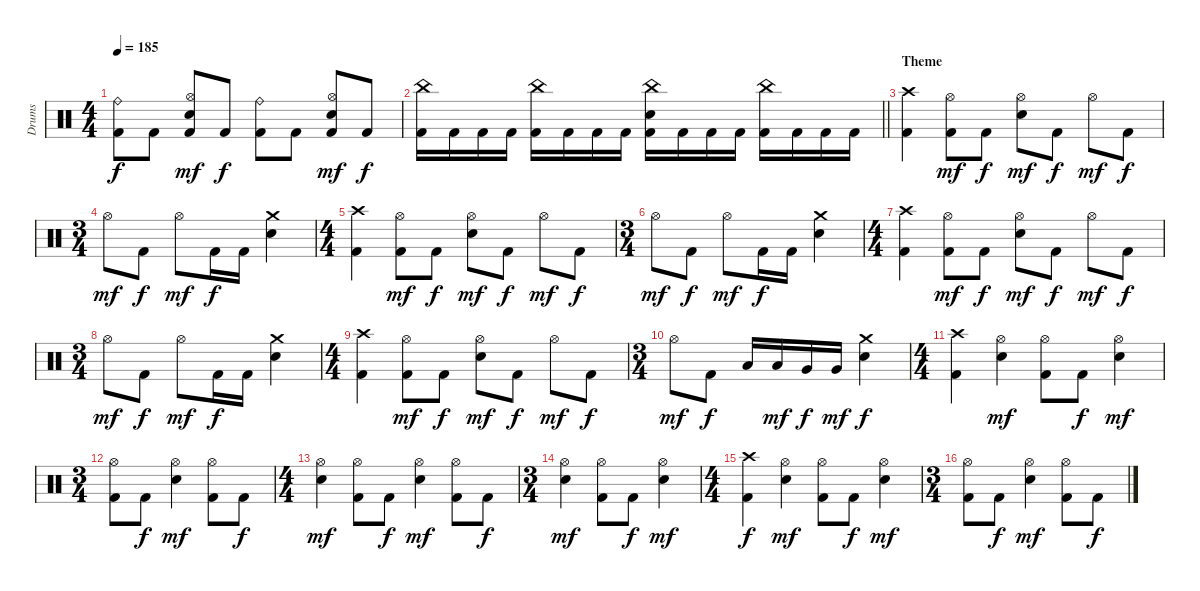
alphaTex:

\track ("Drums" "Drums") {instrument percussion}
\staff {score}
\articulation defaults
\ts (4 4)
\tempo 185
\clef neutral
\ks c
("Kick (hit) 2" "Ride (bell)").8{dy f} "Kick (hit) 2".8 ("Kick (hit) 2" "Hi-Hat (open)" "Electric Snare (hit)").8{dy mf} "Kick (hit) 2".8{dy f} ("Kick (hit) 2" "Ride (bell)").8 "Kick (hit) 2".8 ("Kick (hit) 2" "Hi-Hat (open)" "Electric Snare (hit)").8{dy mf} "Kick (hit) 2".8{dy f} |
\barLineRight lightlight
("Kick (hit) 2" "China (hit)").16 "Kick (hit) 2".16 "Kick (hit) 2".16 "Kick (hit) 2".16 ("Kick (hit) 2" "China (hit)").16 "Kick (hit) 2".16 "Kick (hit) 2".16 "Kick (hit) 2".16 ("Kick (hit) 2" "China (hit)" "Electric Snare (hit)").16 "Kick (hit) 2".16 "Kick (hit) 2".16 "Kick (hit) 2".16 ("Kick (hit) 2" "China (hit)").16 "Kick (hit) 2".16 "Kick (hit) 2".16 "Kick (hit) 2".16 |
\section ("" "Theme")
("Kick (hit) 2" "Crash high (hit)").4 ("Kick (hit) 2" "Hi-Hat (open)").8{dy mf} "Kick (hit) 2".8{dy f} ("Hi-Hat (open)" "Electric Snare (hit)").8{dy mf} "Kick (hit) 2".8{dy f} "Hi-Hat (open)".8{dy mf} "Kick (hit) 2".8{dy f} |
\ts (3 4)
"Hi-Hat (open)".8{dy mf} "Kick (hit) 2".8{dy f} "Hi-Hat (open)".8{dy mf} "Kick (hit) 2".16{dy f} "Kick (hit) 2".16 ("Crash medium (hit)" "Electric Snare (hit)").4 |
\ts (4 4)
("Kick (hit) 2" "Crash high (hit)").4 ("Kick (hit) 2" "Hi-Hat (open)").8{dy mf} "Kick (hit) 2".8{dy f} ("Hi-Hat (open)" "Electric Snare (hit)").8{dy mf} "Kick (hit) 2".8{dy f} "Hi-Hat (open)".8{dy mf} "Kick (hit) 2".8{dy f} |
\ts (3 4)
"Hi-Hat (open)".8{dy mf} "Kick (hit) 2".8{dy f} "Hi-Hat (open)".8{dy mf} "Kick (hit) 2".16{dy f} "Kick (hit) 2".16 ("Crash medium (hit)" "Electric Snare (hit)").4 |
\ts (4 4)
("Kick (hit) 2" "Crash high (hit)").4 ("Kick (hit) 2" "Hi-Hat (open)").8{dy mf} "Kick (hit) 2".8{dy f} ("Hi-Hat (open)" "Electric Snare (hit)").8{dy mf} "Kick (hit) 2".8{dy f} "Hi-Hat (open)".8{dy mf} "Kick (hit) 2".8{dy f} |
\ts (3 4)
"Hi-Hat (open)".8{dy mf} "Kick (hit) 2".8{dy f} "Hi-Hat (open)".8{dy mf} "Kick (hit) 2".16{dy f} "Kick (hit) 2".16 ("Crash medium (hit)" "Electric Snare (hit)").4 |
\ts (4 4)
("Kick (hit) 2" "Crash high (hit)").4 ("Kick (hit) 2" "Hi-Hat (open)").8{dy mf} "Kick (hit) 2".8{dy f} ("Hi-Hat (open)" "Electric Snare (hit)").8{dy mf} "Kick (hit) 2".8{dy f} "Hi-Hat (open)".8{dy mf} "Kick (hit) 2".8{dy f} |
\ts (3 4)
"Hi-Hat (open)".8{dy mf} "Kick (hit) 2".8{dy f} "Low Tom (hit)".16 "Low Tom (hit)".16{dy mf} "Very Low Tom (hit)".16{dy f} "Very Low Tom (hit)".16{dy mf} ("Crash medium (hit)" "Electric Snare (hit)").4{dy f} |
\ts (4 4)
("Kick (hit) 2" "Crash high (hit)").4 ("Hi-Hat (open)" "Electric Snare (hit)").4{dy mf} ("Kick (hit) 2" "Hi-Hat (open)").8 "Kick (hit) 2".8{dy f} ("Hi-Hat (open)" "Electric Snare (hit)").4{dy mf} |
\ts (3 4)
("Kick (hit) 2" "Hi-Hat (open)").8 "Kick (hit) 2".8{dy f} ("Hi-Hat (open)" "Electric Snare (hit)").4{dy mf} ("Kick (hit) 2" "Hi-Hat (open)").8 "Kick (hit) 2".8{dy f} |
\ts (4 4)
("Hi-Hat (open)" "Electric Snare (hit)").4{dy mf} ("Kick (hit) 2" "Hi-Hat (open)").8 "Kick (hit) 2".8{dy f} ("Hi-Hat (open)" "Electric Snare (hit)").4{dy mf} ("Kick (hit) 2" "Hi-Hat (open)").8 "Kick (hit) 2".8{dy f} |
\ts (3 4)
("Hi-Hat (open)" "Electric Snare (hit)").4{dy mf} ("Kick (hit) 2" "Hi-Hat (open)").8 "Kick (hit) 2".8{dy f} ("Hi-Hat (open)" "Electric Snare (hit)").4{dy mf} |
\ts (4 4)
("Kick (hit) 2" "Crash high (hit)").4{dy f} ("Hi-Hat (open)" "Electric Snare (hit)").4{dy mf} ("Kick (hit) 2" "Hi-Hat (open)").8 "Kick (hit) 2".8{dy f} ("Hi-Hat (open)" "Electric Snare (hit)").4{dy mf} |
\ts (3 4)
("Kick (hit) 2" "Hi-Hat (open)").8 "Kick (hit) 2".8{dy f} ("Hi-Hat (open)" "Electric Snare (hit)").4{dy mf} ("Kick (hit) 2" "Hi-Hat (open)").8 "Kick (hit) 2".8{dy f}
